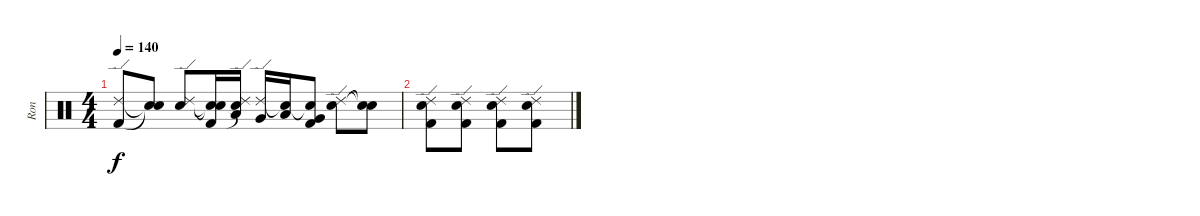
\track ("Ron" "Ron") {instrument percussion}
\staff {score}
\articulation defaults
\ts (4 4)
\tempo 140
\clef neutral
\ks c
("Ride (edge) 2" "Kick (hit) 2").8{dy f} ("Snare (hit)"{t} "Snare (hit)"{t}).8 ("Ride (edge) 2" "Snare (hit) 2").8 ("Snare (hit)"{t} "Snare (hit)"{t} "Kick (hit) 2").16 ("Ride (edge) 2"{t} "Low Tom (hit)" "Snare (hit)"{t}).16 ("Ride (edge) 2" "Very Low Tom (hit)").16 ("Snare (hit)"{t} "Low Tom (hit)").16 ("Snare (hit)"{t} "Very Low Tom (hit)" "Kick (hit) 2").8 ("Ride (edge) 2" "Snare (hit) 2").8 ("Snare (hit)"{t} "Snare (hit)"{t}).8 |
("Ride (edge) 2" "Electric Snare (hit)" "Kick (hit) 2").8 ("Ride (edge) 2" "Electric Snare (hit)" "Kick (hit) 2").8 ("Ride (edge) 2" "Electric Snare (hit)" "Kick (hit) 2").8 ("Ride (edge) 2" "Electric Snare (hit)" "Kick (hit) 2").8
